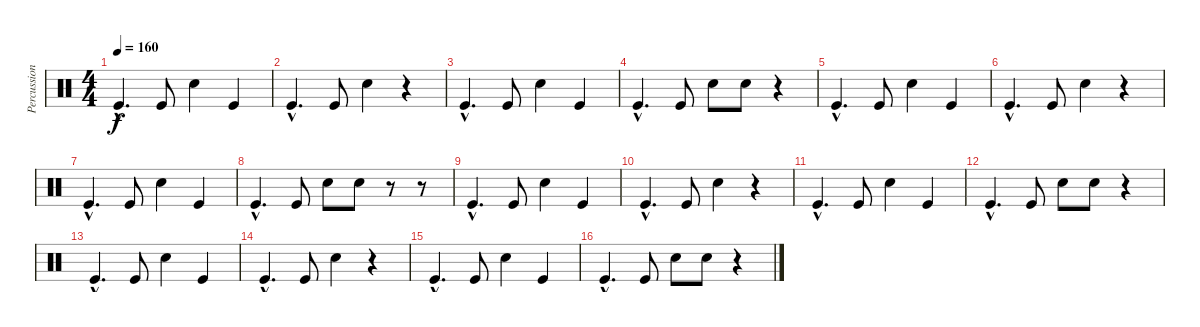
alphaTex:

\track ("Percussion" "Percussion") {instrument percussion}
\staff {score}
\articulation defaults
\ts (4 4)
\tempo 160
\clef neutral
\ks c "Kick (hit)"{hac}.4{d dy f} "Kick (hit)".8 "Electric Snare (hit)".4 "Kick (hit)".4
|
"Kick (hit)"{hac}.4{d} "Kick (hit)".8 "Electric Snare (hit)".4 r.4 |
"Kick (hit)"{hac}.4{d} "Kick (hit)".8 "Electric Snare (hit)".4 "Kick (hit)".4 |
"Kick (hit)"{hac}.4{d} "Kick (hit)".8 "Electric Snare (hit)".8 "Electric Snare (hit)".8 r.4 |
"Kick (hit)"{hac}.4{d} "Kick (hit)".8 "Electric Snare (hit)".4 "Kick (hit)".4 |
"Kick (hit)"{hac}.4{d} "Kick (hit)".8 "Electric Snare (hit)".4 r.4 |
"Kick (hit)"{hac}.4{d} "Kick (hit)".8 "Electric Snare (hit)".4 "Kick (hit)".4 |
"Kick (hit)"{hac}.4{d} "Kick (hit)".8 "Electric Snare (hit)".8 "Snare (hit) 2".8 r.8 r.8 |
"Kick (hit)"{hac}.4{d} "Kick (hit)".8 "Electric Snare (hit)".4 "Kick (hit)".4 |
"Kick (hit)"{hac}.4{d} "Kick (hit)".8 "Electric Snare (hit)".4 r.4 |
"Kick (hit)"{hac}.4{d} "Kick (hit)".8 "Electric Snare (hit)".4 "Kick (hit)".4 |
"Kick (hit)"{hac}.4{d} "Kick (hit)".8 "Electric Snare (hit)".8 "Electric Snare (hit)".8 r.4 |
"Kick (hit)"{hac}.4{d} "Kick (hit)".8 "Electric Snare (hit)".4 "Kick (hit)".4 |
"Kick (hit)"{hac}.4{d} "Kick (hit)".8 "Electric Snare (hit)".4 r.4 |
"Kick (hit)"{hac}.4{d} "Kick (hit)".8 "Electric Snare (hit)".4 "Kick (hit)".4 |
"Kick (hit)"{hac}.4{d} "Kick (hit)".8 "Electric Snare (hit)".8 "Electric Snare (hit)".8 r.4
